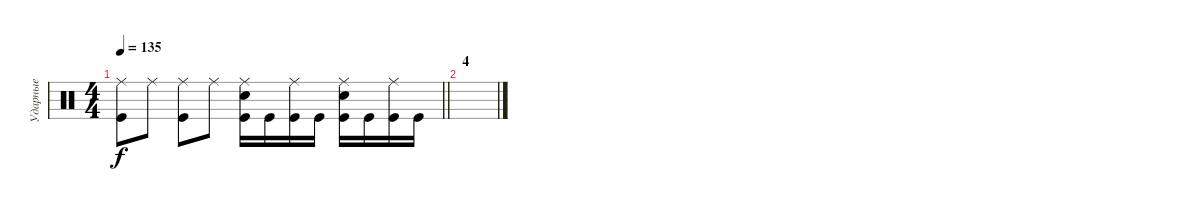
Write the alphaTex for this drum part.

\track ("Ударные" "Ударные") {instrument percussion}
\staff {score}
\articulation defaults
\ts (4 4)
\tempo 135
\clef neutral
\barLineRight lightlight
\ks c
("Ride (middle)" "Kick (hit)").8{dy f} "Ride (middle)".8 ("Ride (middle)" "Kick (hit)").8 "Ride (middle)".8 ("Ride (middle)" "Electric Snare (hit)" "Kick (hit)").16 "Kick (hit)".16 ("Ride (middle)" "Kick (hit)").16 "Kick (hit)".16 ("Ride (middle)" "Electric Snare (hit)" "Kick (hit)").16 "Kick (hit)".16 ("Ride (middle)" "Kick (hit)").16 "Kick (hit)".16 |
\section ("" "4")
